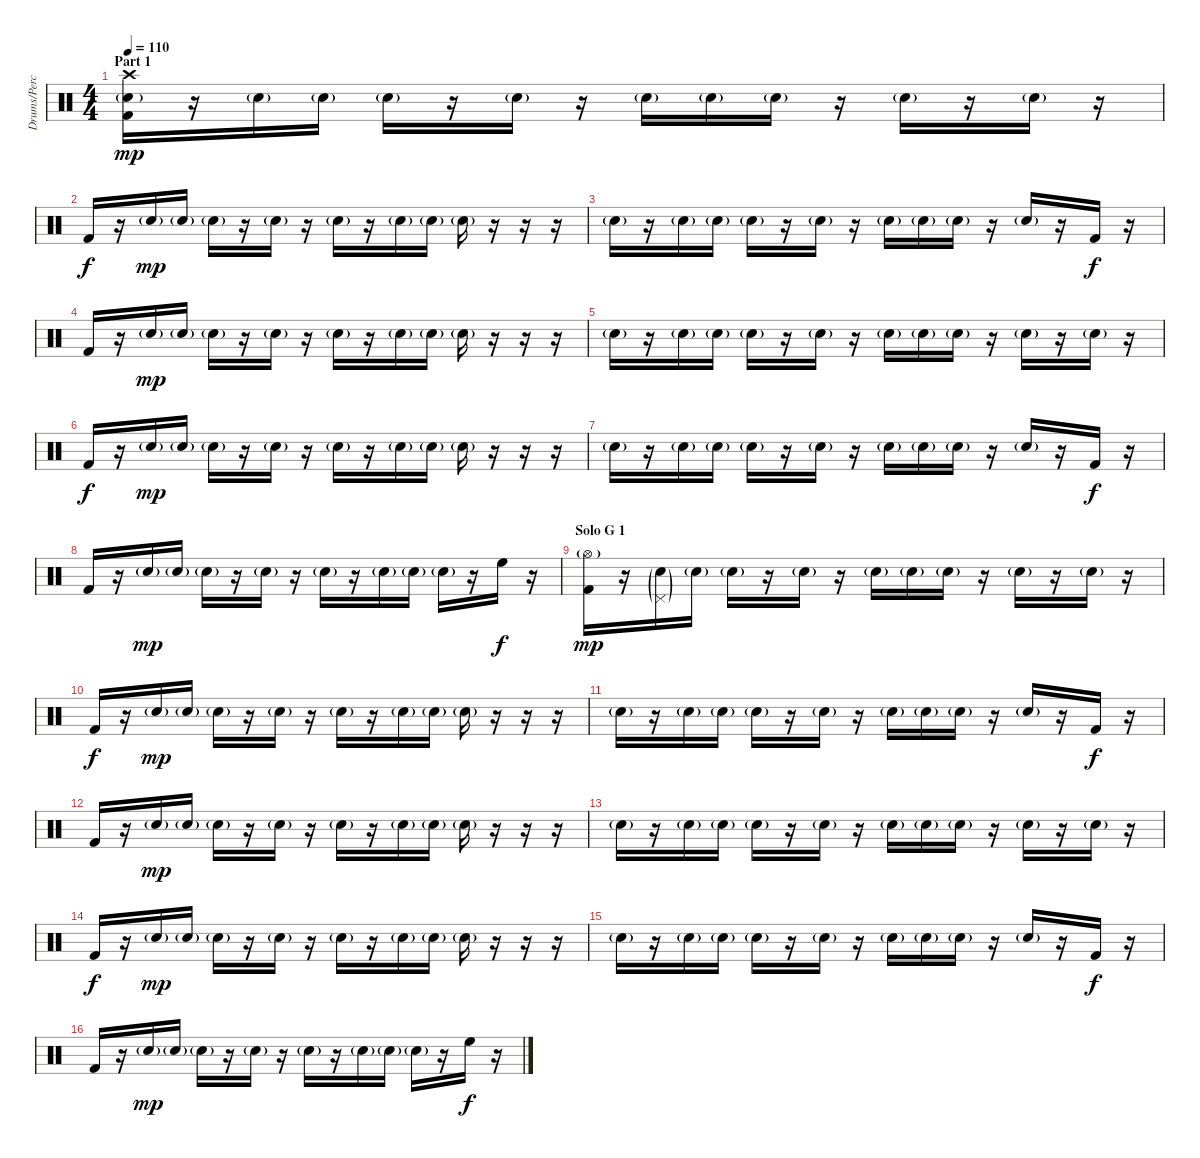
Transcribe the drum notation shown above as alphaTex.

\track ("Drums/Percussions" "Drums/Perc") {instrument percussion}
\staff {score}
\articulation defaults
\ts (4 4)
\section ("" "Part 1")
\tempo 110
\clef neutral
\ks c
("Crash high (hit)" "Snare (hit) 2"{g} "Kick (hit) 2").16{dy mp} r.16 "Snare (hit) 2"{g}.16 "Snare (hit) 2"{g}.16 "Snare (hit) 2"{g}.16 r.16 "Snare (hit) 2"{g}.16 r.16 "Snare (hit) 2"{g}.16 "Snare (hit) 2"{g}.16 "Snare (hit) 2"{g}.16 r.16 "Snare (hit) 2"{g}.16 r.16 "Snare (hit) 2"{g}.16 r.16 |
"Kick (hit) 2".16{dy f} r.16 "Snare (hit) 2"{g}.16{dy mp} "Snare (hit) 2"{g}.16 "Snare (hit) 2"{g}.16 r.16 "Snare (hit) 2"{g}.16 r.16 "Snare (hit) 2"{g}.16 r.16 "Snare (hit) 2"{g}.16 "Snare (hit) 2"{g}.16 "Snare (hit) 2"{g}.16 r.16 r.16 r.16 |
"Snare (hit) 2"{g}.16 r.16 "Snare (hit) 2"{g}.16 "Snare (hit) 2"{g}.16 "Snare (hit) 2"{g}.16 r.16 "Snare (hit) 2"{g}.16 r.16 "Snare (hit) 2"{g}.16 "Snare (hit) 2"{g}.16 "Snare (hit) 2"{g}.16 r.16 "Snare (hit) 2"{g}.16 r.16 "Kick (hit) 2".16{dy f} r.16 |
"Kick (hit) 2".16 r.16 "Snare (hit) 2"{g}.16{dy mp} "Snare (hit) 2"{g}.16 "Snare (hit) 2"{g}.16 r.16 "Snare (hit) 2"{g}.16 r.16 "Snare (hit) 2"{g}.16 r.16 "Snare (hit) 2"{g}.16 "Snare (hit) 2"{g}.16 "Snare (hit) 2"{g}.16 r.16 r.16 r.16 |
"Snare (hit) 2"{g}.16 r.16 "Snare (hit) 2"{g}.16 "Snare (hit) 2"{g}.16 "Snare (hit) 2"{g}.16 r.16 "Snare (hit) 2"{g}.16 r.16 "Snare (hit) 2"{g}.16 "Snare (hit) 2"{g}.16 "Snare (hit) 2"{g}.16 r.16 "Snare (hit) 2"{g}.16 r.16 "Snare (hit) 2"{g}.16 r.16 |
"Kick (hit) 2".16{dy f} r.16 "Snare (hit) 2"{g}.16{dy mp} "Snare (hit) 2"{g}.16 "Snare (hit) 2"{g}.16 r.16 "Snare (hit) 2"{g}.16 r.16 "Snare (hit) 2"{g}.16 r.16 "Snare (hit) 2"{g}.16 "Snare (hit) 2"{g}.16 "Snare (hit) 2"{g}.16 r.16 r.16 r.16 |
"Snare (hit) 2"{g}.16 r.16 "Snare (hit) 2"{g}.16 "Snare (hit) 2"{g}.16 "Snare (hit) 2"{g}.16 r.16 "Snare (hit) 2"{g}.16 r.16 "Snare (hit) 2"{g}.16 "Snare (hit) 2"{g}.16 "Snare (hit) 2"{g}.16 r.16 "Snare (hit) 2"{g}.16 r.16 "Kick (hit) 2".16{dy f} r.16 |
"Kick (hit) 2".16 r.16 "Snare (hit) 2"{g}.16{dy mp} "Snare (hit) 2"{g}.16 "Snare (hit) 2"{g}.16 r.16 "Snare (hit) 2"{g}.16 r.16 "Snare (hit) 2"{g}.16 r.16 "Snare (hit) 2"{g}.16 "Snare (hit) 2"{g}.16 "Snare (hit) 2"{g}.16 r.16 "High Floor Tom (hit)".16{dy f} r.16 |
\section ("" "Solo G 1")
("Hi-Hat (open)"{g} "Kick (hit) 2").16{dy mp} r.16 ("Pedal Hi-Hat (hit)"{g} "Snare (hit) 2"{g}).16 "Snare (hit) 2"{g}.16 "Snare (hit) 2"{g}.16 r.16 "Snare (hit) 2"{g}.16 r.16 "Snare (hit) 2"{g}.16 "Snare (hit) 2"{g}.16 "Snare (hit) 2"{g}.16 r.16 "Snare (hit) 2"{g}.16 r.16 "Snare (hit) 2"{g}.16 r.16 |
"Kick (hit) 2".16{dy f} r.16 "Snare (hit) 2"{g}.16{dy mp} "Snare (hit) 2"{g}.16 "Snare (hit) 2"{g}.16 r.16 "Snare (hit) 2"{g}.16 r.16 "Snare (hit) 2"{g}.16 r.16 "Snare (hit) 2"{g}.16 "Snare (hit) 2"{g}.16 "Snare (hit) 2"{g}.16 r.16 r.16 r.16 |
"Snare (hit) 2"{g}.16 r.16 "Snare (hit) 2"{g}.16 "Snare (hit) 2"{g}.16 "Snare (hit) 2"{g}.16 r.16 "Snare (hit) 2"{g}.16 r.16 "Snare (hit) 2"{g}.16 "Snare (hit) 2"{g}.16 "Snare (hit) 2"{g}.16 r.16 "Snare (hit) 2"{g}.16 r.16 "Kick (hit) 2".16{dy f} r.16 |
"Kick (hit) 2".16 r.16 "Snare (hit) 2"{g}.16{dy mp} "Snare (hit) 2"{g}.16 "Snare (hit) 2"{g}.16 r.16 "Snare (hit) 2"{g}.16 r.16 "Snare (hit) 2"{g}.16 r.16 "Snare (hit) 2"{g}.16 "Snare (hit) 2"{g}.16 "Snare (hit) 2"{g}.16 r.16 r.16 r.16 |
"Snare (hit) 2"{g}.16 r.16 "Snare (hit) 2"{g}.16 "Snare (hit) 2"{g}.16 "Snare (hit) 2"{g}.16 r.16 "Snare (hit) 2"{g}.16 r.16 "Snare (hit) 2"{g}.16 "Snare (hit) 2"{g}.16 "Snare (hit) 2"{g}.16 r.16 "Snare (hit) 2"{g}.16 r.16 "Snare (hit) 2"{g}.16 r.16 |
"Kick (hit) 2".16{dy f} r.16 "Snare (hit) 2"{g}.16{dy mp} "Snare (hit) 2"{g}.16 "Snare (hit) 2"{g}.16 r.16 "Snare (hit) 2"{g}.16 r.16 "Snare (hit) 2"{g}.16 r.16 "Snare (hit) 2"{g}.16 "Snare (hit) 2"{g}.16 "Snare (hit) 2"{g}.16 r.16 r.16 r.16 |
"Snare (hit) 2"{g}.16 r.16 "Snare (hit) 2"{g}.16 "Snare (hit) 2"{g}.16 "Snare (hit) 2"{g}.16 r.16 "Snare (hit) 2"{g}.16 r.16 "Snare (hit) 2"{g}.16 "Snare (hit) 2"{g}.16 "Snare (hit) 2"{g}.16 r.16 "Snare (hit) 2"{g}.16 r.16 "Kick (hit) 2".16{dy f} r.16 |
"Kick (hit) 2".16 r.16 "Snare (hit) 2"{g}.16{dy mp} "Snare (hit) 2"{g}.16 "Snare (hit) 2"{g}.16 r.16 "Snare (hit) 2"{g}.16 r.16 "Snare (hit) 2"{g}.16 r.16 "Snare (hit) 2"{g}.16 "Snare (hit) 2"{g}.16 "Snare (hit) 2"{g}.16 r.16 "High Floor Tom (hit)".16{dy f} r.16
